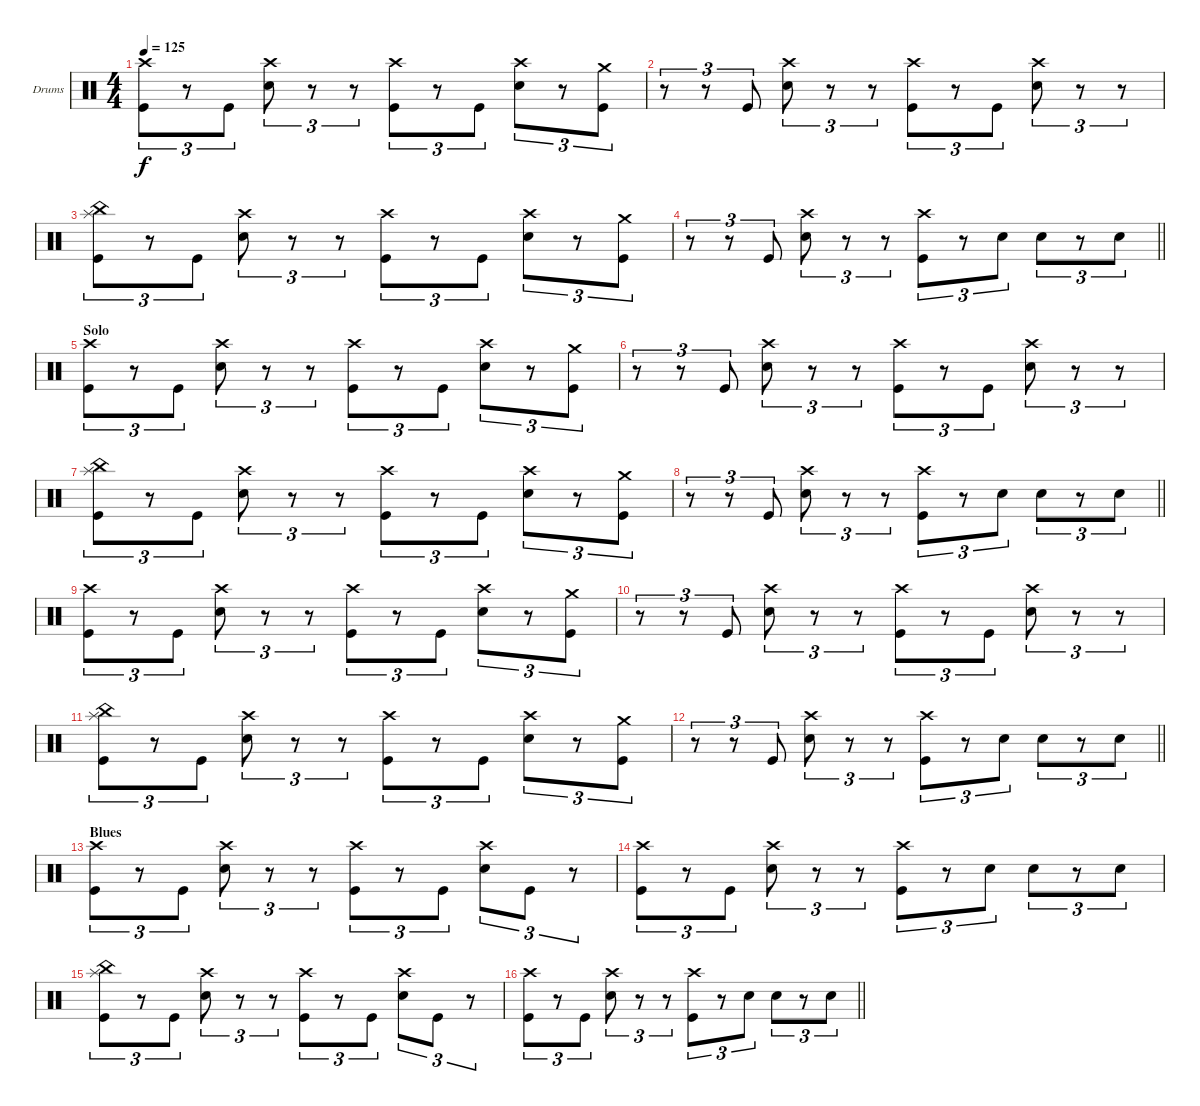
\bracketExtendMode groupsimilarinstruments
\firstSystemTrackNameOrientation horizontal
\otherSystemsTrackNameOrientation horizontal
\track ("Drumkit" "Drums") {instrument percussion}
\staff {score}
\articulation defaults
\ts (4 4)
\tempo 125
\clef neutral
\ks c
("Crash high (hit)" "Kick (hit)").8{tu (3 2) dy f} r.8{tu (3 2)} "Kick (hit)".8{tu (3 2)} ("Crash high (hit)" "Snare (hit) 2").8{tu (3 2)} r.8{tu (3 2)} r.8{tu (3 2)} ("Crash high (hit)" "Kick (hit)").8{tu (3 2)} r.8{tu (3 2)} "Kick (hit)".8{tu (3 2)} ("Crash high (hit)" "Snare (hit) 2").8{tu (3 2)} r.8{tu (3 2)} ("Crash medium (hit)" "Kick (hit)").8{tu (3 2)} |
r.8{tu (3 2)} r.8{tu (3 2)} "Kick (hit)".8{tu (3 2)} ("Crash high (hit)" "Snare (hit) 2").8{tu (3 2)} r.8{tu (3 2)} r.8{tu (3 2)} ("Crash high (hit)" "Kick (hit)").8{tu (3 2)} r.8{tu (3 2)} "Kick (hit)".8{tu (3 2)} ("Crash high (hit)" "Snare (hit) 2").8{tu (3 2)} r.8{tu (3 2)} r.8{tu (3 2)} |
("Splash (hit)" "China (hit)" "Kick (hit)").8{tu (3 2)} r.8{tu (3 2)} "Kick (hit)".8{tu (3 2)} ("Crash high (hit)" "Snare (hit) 2").8{tu (3 2)} r.8{tu (3 2)} r.8{tu (3 2)} ("Crash high (hit)" "Kick (hit)").8{tu (3 2)} r.8{tu (3 2)} "Kick (hit)".8{tu (3 2)} ("Crash high (hit)" "Snare (hit) 2").8{tu (3 2)} r.8{tu (3 2)} ("Crash medium (hit)" "Kick (hit)").8{tu (3 2)} |
\barLineRight lightlight
r.8{tu (3 2)} r.8{tu (3 2)} "Kick (hit)".8{tu (3 2)} ("Crash high (hit)" "Snare (hit) 2").8{tu (3 2)} r.8{tu (3 2)} r.8{tu (3 2)} ("Crash high (hit)" "Kick (hit)").8{tu (3 2)} r.8{tu (3 2)} "Snare (hit) 2".8{tu (3 2)} "Snare (hit) 2".8{tu (3 2)} r.8{tu (3 2)} "Snare (hit) 2".8{tu (3 2)} |
\section ("" "Solo")
("Crash high (hit)" "Kick (hit)").8{tu (3 2)} r.8{tu (3 2)} "Kick (hit)".8{tu (3 2)} ("Crash high (hit)" "Snare (hit) 2").8{tu (3 2)} r.8{tu (3 2)} r.8{tu (3 2)} ("Crash high (hit)" "Kick (hit)").8{tu (3 2)} r.8{tu (3 2)} "Kick (hit)".8{tu (3 2)} ("Crash high (hit)" "Snare (hit) 2").8{tu (3 2)} r.8{tu (3 2)} ("Crash medium (hit)" "Kick (hit)").8{tu (3 2)} |
r.8{tu (3 2)} r.8{tu (3 2)} "Kick (hit)".8{tu (3 2)} ("Crash high (hit)" "Snare (hit) 2").8{tu (3 2)} r.8{tu (3 2)} r.8{tu (3 2)} ("Crash high (hit)" "Kick (hit)").8{tu (3 2)} r.8{tu (3 2)} "Kick (hit)".8{tu (3 2)} ("Crash high (hit)" "Snare (hit) 2").8{tu (3 2)} r.8{tu (3 2)} r.8{tu (3 2)} |
("Splash (hit)" "China (hit)" "Kick (hit)").8{tu (3 2)} r.8{tu (3 2)} "Kick (hit)".8{tu (3 2)} ("Crash high (hit)" "Snare (hit) 2").8{tu (3 2)} r.8{tu (3 2)} r.8{tu (3 2)} ("Crash high (hit)" "Kick (hit)").8{tu (3 2)} r.8{tu (3 2)} "Kick (hit)".8{tu (3 2)} ("Crash high (hit)" "Snare (hit) 2").8{tu (3 2)} r.8{tu (3 2)} ("Crash medium (hit)" "Kick (hit)").8{tu (3 2)} |
\barLineRight lightlight
r.8{tu (3 2)} r.8{tu (3 2)} "Kick (hit)".8{tu (3 2)} ("Crash high (hit)" "Snare (hit) 2").8{tu (3 2)} r.8{tu (3 2)} r.8{tu (3 2)} ("Crash high (hit)" "Kick (hit)").8{tu (3 2)} r.8{tu (3 2)} "Snare (hit) 2".8{tu (3 2)} "Snare (hit) 2".8{tu (3 2)} r.8{tu (3 2)} "Snare (hit) 2".8{tu (3 2)} |
("Crash high (hit)" "Kick (hit)").8{tu (3 2)} r.8{tu (3 2)} "Kick (hit)".8{tu (3 2)} ("Crash high (hit)" "Snare (hit) 2").8{tu (3 2)} r.8{tu (3 2)} r.8{tu (3 2)} ("Crash high (hit)" "Kick (hit)").8{tu (3 2)} r.8{tu (3 2)} "Kick (hit)".8{tu (3 2)} ("Crash high (hit)" "Snare (hit) 2").8{tu (3 2)} r.8{tu (3 2)} ("Crash medium (hit)" "Kick (hit)").8{tu (3 2)} |
r.8{tu (3 2)} r.8{tu (3 2)} "Kick (hit)".8{tu (3 2)} ("Crash high (hit)" "Snare (hit) 2").8{tu (3 2)} r.8{tu (3 2)} r.8{tu (3 2)} ("Crash high (hit)" "Kick (hit)").8{tu (3 2)} r.8{tu (3 2)} "Kick (hit)".8{tu (3 2)} ("Crash high (hit)" "Snare (hit) 2").8{tu (3 2)} r.8{tu (3 2)} r.8{tu (3 2)} |
("Splash (hit)" "China (hit)" "Kick (hit)").8{tu (3 2)} r.8{tu (3 2)} "Kick (hit)".8{tu (3 2)} ("Crash high (hit)" "Snare (hit) 2").8{tu (3 2)} r.8{tu (3 2)} r.8{tu (3 2)} ("Crash high (hit)" "Kick (hit)").8{tu (3 2)} r.8{tu (3 2)} "Kick (hit)".8{tu (3 2)} ("Crash high (hit)" "Snare (hit) 2").8{tu (3 2)} r.8{tu (3 2)} ("Crash medium (hit)" "Kick (hit)").8{tu (3 2)} |
\barLineRight lightlight
r.8{tu (3 2)} r.8{tu (3 2)} "Kick (hit)".8{tu (3 2)} ("Crash high (hit)" "Snare (hit) 2").8{tu (3 2)} r.8{tu (3 2)} r.8{tu (3 2)} ("Crash high (hit)" "Kick (hit)").8{tu (3 2)} r.8{tu (3 2)} "Snare (hit) 2".8{tu (3 2)} "Snare (hit) 2".8{tu (3 2)} r.8{tu (3 2)} "Snare (hit) 2".8{tu (3 2)} |
\section ("" "Blues")
("Crash high (hit)" "Kick (hit)").8{tu (3 2)} r.8{tu (3 2)} "Kick (hit)".8{tu (3 2)} ("Crash high (hit)" "Snare (hit) 2").8{tu (3 2)} r.8{tu (3 2)} r.8{tu (3 2)} ("Crash high (hit)" "Kick (hit)").8{tu (3 2)} r.8{tu (3 2)} "Kick (hit)".8{tu (3 2)} ("Crash high (hit)" "Snare (hit) 2").8{tu (3 2)} "Kick (hit)".8{tu (3 2)} r.8{tu (3 2)} |
("Crash high (hit)" "Kick (hit)").8{tu (3 2)} r.8{tu (3 2)} "Kick (hit)".8{tu (3 2)} ("Crash high (hit)" "Snare (hit) 2").8{tu (3 2)} r.8{tu (3 2)} r.8{tu (3 2)} ("Crash high (hit)" "Kick (hit)").8{tu (3 2)} r.8{tu (3 2)} "Snare (hit) 2".8{tu (3 2)} "Snare (hit) 2".8{tu (3 2)} r.8{tu (3 2)} "Snare (hit) 2".8{tu (3 2)} |
("Splash (hit)" "China (hit)" "Kick (hit)").8{tu (3 2)} r.8{tu (3 2)} "Kick (hit)".8{tu (3 2)} ("Crash high (hit)" "Snare (hit) 2").8{tu (3 2)} r.8{tu (3 2)} r.8{tu (3 2)} ("Crash high (hit)" "Kick (hit)").8{tu (3 2)} r.8{tu (3 2)} "Kick (hit)".8{tu (3 2)} ("Crash high (hit)" "Snare (hit) 2").8{tu (3 2)} "Kick (hit)".8{tu (3 2)} r.8{tu (3 2)} |
\barLineRight lightlight
("Crash high (hit)" "Kick (hit)").8{tu (3 2)} r.8{tu (3 2)} "Kick (hit)".8{tu (3 2)} ("Crash high (hit)" "Snare (hit) 2").8{tu (3 2)} r.8{tu (3 2)} r.8{tu (3 2)} ("Crash high (hit)" "Kick (hit)").8{tu (3 2)} r.8{tu (3 2)} "Snare (hit) 2".8{tu (3 2)} "Snare (hit) 2".8{tu (3 2)} r.8{tu (3 2)} "Snare (hit) 2".8{tu (3 2)}
